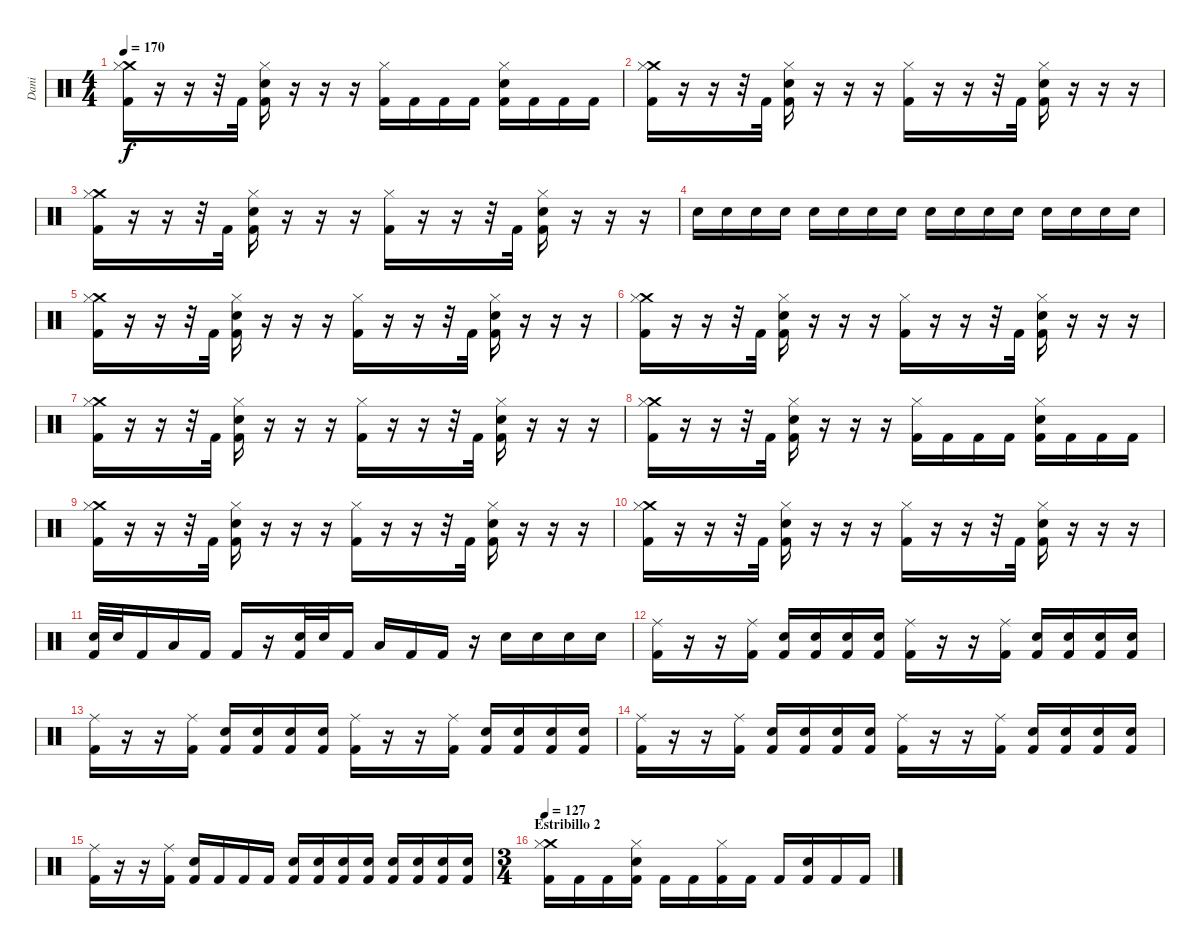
\track ("Dani" "Dani") {instrument percussion}
\staff {score}
\articulation defaults
\ts (4 4)
\tempo 170
\clef neutral
\ks c
("Crash medium (hit)" "Hi-Hat (closed)" "Kick (hit) 2").16{dy f} r.16 r.16 r.32 "Kick (hit) 2".32 ("Hi-Hat (closed)" "Electric Snare (hit)" "Kick (hit) 2").16 r.16 r.16 r.16 ("Hi-Hat (closed)" "Kick (hit) 2").16 "Kick (hit) 2".16 "Kick (hit) 2".16 "Kick (hit) 2".16 ("Hi-Hat (closed)" "Electric Snare (hit)" "Kick (hit) 2").16 "Kick (hit) 2".16 "Kick (hit) 2".16 "Kick (hit) 2".16 |
("Crash medium (hit)" "Hi-Hat (closed)" "Kick (hit) 2").16 r.16 r.16 r.32 "Kick (hit) 2".32 ("Hi-Hat (closed)" "Electric Snare (hit)" "Kick (hit) 2").16 r.16 r.16 r.16 ("Hi-Hat (closed)" "Kick (hit) 2").16 r.16 r.16 r.32 "Kick (hit) 2".32 ("Hi-Hat (closed)" "Electric Snare (hit)" "Kick (hit) 2").16 r.16 r.16 r.16 |
("Crash medium (hit)" "Hi-Hat (closed)" "Kick (hit) 2").16 r.16 r.16 r.32 "Kick (hit) 2".32 ("Hi-Hat (closed)" "Electric Snare (hit)" "Kick (hit) 2").16 r.16 r.16 r.16 ("Hi-Hat (closed)" "Kick (hit) 2").16 r.16 r.16 r.32 "Kick (hit) 2".32 ("Hi-Hat (closed)" "Electric Snare (hit)" "Kick (hit) 2").16 r.16 r.16 r.16 |
"Electric Snare (hit)".16 "Electric Snare (hit)".16 "Electric Snare (hit)".16 "Electric Snare (hit)".16 "Electric Snare (hit)".16 "Electric Snare (hit)".16 "Electric Snare (hit)".16 "Electric Snare (hit)".16 "Electric Snare (hit)".16 "Electric Snare (hit)".16 "Electric Snare (hit)".16 "Electric Snare (hit)".16 "Electric Snare (hit)".16 "Electric Snare (hit)".16 "Electric Snare (hit)".16 "Electric Snare (hit)".16 |
("Crash medium (hit)" "Hi-Hat (closed)" "Kick (hit) 2").16 r.16 r.16 r.32 "Kick (hit) 2".32 ("Hi-Hat (closed)" "Electric Snare (hit)" "Kick (hit) 2").16 r.16 r.16 r.16 ("Hi-Hat (closed)" "Kick (hit) 2").16 r.16 r.16 r.32 "Kick (hit) 2".32 ("Hi-Hat (closed)" "Electric Snare (hit)" "Kick (hit) 2").16 r.16 r.16 r.16 |
("Crash medium (hit)" "Hi-Hat (closed)" "Kick (hit) 2").16 r.16 r.16 r.32 "Kick (hit) 2".32 ("Hi-Hat (closed)" "Electric Snare (hit)" "Kick (hit) 2").16 r.16 r.16 r.16 ("Hi-Hat (closed)" "Kick (hit) 2").16 r.16 r.16 r.32 "Kick (hit) 2".32 ("Hi-Hat (closed)" "Electric Snare (hit)" "Kick (hit) 2").16 r.16 r.16 r.16 |
("Crash medium (hit)" "Hi-Hat (closed)" "Kick (hit) 2").16 r.16 r.16 r.32 "Kick (hit) 2".32 ("Hi-Hat (closed)" "Electric Snare (hit)" "Kick (hit) 2").16 r.16 r.16 r.16 ("Hi-Hat (closed)" "Kick (hit) 2").16 r.16 r.16 r.32 "Kick (hit) 2".32 ("Hi-Hat (closed)" "Electric Snare (hit)" "Kick (hit) 2").16 r.16 r.16 r.16 |
("Crash medium (hit)" "Hi-Hat (closed)" "Kick (hit) 2").16 r.16 r.16 r.32 "Kick (hit) 2".32 ("Hi-Hat (closed)" "Electric Snare (hit)" "Kick (hit) 2").16 r.16 r.16 r.16 ("Hi-Hat (closed)" "Kick (hit) 2").16 "Kick (hit) 2".16 "Kick (hit) 2".16 "Kick (hit) 2".16 ("Hi-Hat (closed)" "Electric Snare (hit)" "Kick (hit) 2").16 "Kick (hit) 2".16 "Kick (hit) 2".16 "Kick (hit) 2".16 |
("Crash medium (hit)" "Hi-Hat (closed)" "Kick (hit) 2").16 r.16 r.16 r.32 "Kick (hit) 2".32 ("Hi-Hat (closed)" "Electric Snare (hit)" "Kick (hit) 2").16 r.16 r.16 r.16 ("Hi-Hat (closed)" "Kick (hit) 2").16 r.16 r.16 r.32 "Kick (hit) 2".32 ("Hi-Hat (closed)" "Electric Snare (hit)" "Kick (hit) 2").16 r.16 r.16 r.16 |
("Crash medium (hit)" "Hi-Hat (closed)" "Kick (hit) 2").16 r.16 r.16 r.32 "Kick (hit) 2".32 ("Hi-Hat (closed)" "Electric Snare (hit)" "Kick (hit) 2").16 r.16 r.16 r.16 ("Hi-Hat (closed)" "Kick (hit) 2").16 r.16 r.16 r.32 "Kick (hit) 2".32 ("Hi-Hat (closed)" "Electric Snare (hit)" "Kick (hit) 2").16 r.16 r.16 r.16 |
("Electric Snare (hit)" "Kick (hit) 2").32 "Electric Snare (hit)".32 "Kick (hit) 2".16 "Low Tom (hit)".16 "Kick (hit) 2".16 "Kick (hit) 2".16 r.16 ("Electric Snare (hit)" "Kick (hit) 2").32 "Electric Snare (hit)".32 "Kick (hit) 2".16 "Low Tom (hit)".16 "Kick (hit) 2".16 "Kick (hit) 2".16 r.16 "Electric Snare (hit)".16 "Electric Snare (hit)".16 "Electric Snare (hit)".16 "Electric Snare (hit)".16 |
("Ride (middle)" "Kick (hit) 2").16 r.16 r.16 ("Ride (middle)" "Kick (hit) 2").16 ("Electric Snare (hit)" "Kick (hit) 2").16 ("Electric Snare (hit)" "Kick (hit) 2").16 ("Electric Snare (hit)" "Kick (hit) 2").16 ("Electric Snare (hit)" "Kick (hit) 2").16 ("Ride (middle)" "Kick (hit) 2").16 r.16 r.16 ("Ride (middle)" "Kick (hit) 2").16 ("Electric Snare (hit)" "Kick (hit) 2").16 ("Electric Snare (hit)" "Kick (hit) 2").16 ("Electric Snare (hit)" "Kick (hit) 2").16 ("Electric Snare (hit)" "Kick (hit) 2").16 |
("Ride (middle)" "Kick (hit) 2").16 r.16 r.16 ("Ride (middle)" "Kick (hit) 2").16 ("Electric Snare (hit)" "Kick (hit) 2").16 ("Electric Snare (hit)" "Kick (hit) 2").16 ("Electric Snare (hit)" "Kick (hit) 2").16 ("Electric Snare (hit)" "Kick (hit) 2").16 ("Ride (middle)" "Kick (hit) 2").16 r.16 r.16 ("Ride (middle)" "Kick (hit) 2").16 ("Electric Snare (hit)" "Kick (hit) 2").16 ("Electric Snare (hit)" "Kick (hit) 2").16 ("Electric Snare (hit)" "Kick (hit) 2").16 ("Electric Snare (hit)" "Kick (hit) 2").16 |
("Ride (middle)" "Kick (hit) 2").16 r.16 r.16 ("Ride (middle)" "Kick (hit) 2").16 ("Electric Snare (hit)" "Kick (hit) 2").16 ("Electric Snare (hit)" "Kick (hit) 2").16 ("Electric Snare (hit)" "Kick (hit) 2").16 ("Electric Snare (hit)" "Kick (hit) 2").16 ("Ride (middle)" "Kick (hit) 2").16 r.16 r.16 ("Ride (middle)" "Kick (hit) 2").16 ("Electric Snare (hit)" "Kick (hit) 2").16 ("Electric Snare (hit)" "Kick (hit) 2").16 ("Electric Snare (hit)" "Kick (hit) 2").16 ("Electric Snare (hit)" "Kick (hit) 2").16 |
("Ride (middle)" "Kick (hit) 2").16 r.16 r.16 ("Ride (middle)" "Kick (hit) 2").16 ("Electric Snare (hit)" "Kick (hit) 2").16 "Kick (hit) 2".16 "Kick (hit) 2".16 "Kick (hit) 2".16 ("Electric Snare (hit)" "Kick (hit) 2").16 ("Electric Snare (hit)" "Kick (hit) 2").16 ("Electric Snare (hit)" "Kick (hit) 2").16 ("Electric Snare (hit)" "Kick (hit) 2").16 ("Electric Snare (hit)" "Kick (hit) 2").16 ("Electric Snare (hit)" "Kick (hit) 2").16 ("Electric Snare (hit)" "Kick (hit) 2").16 ("Electric Snare (hit)" "Kick (hit) 2").16 |
\ts (3 4)
\section ("" "Estribillo 2")
\tempo 127
("Crash medium (hit)" "Hi-Hat (closed)" "Kick (hit) 2").16 "Kick (hit) 2".16 "Kick (hit) 2".16 ("Hi-Hat (closed)" "Electric Snare (hit)" "Kick (hit) 2").16 "Kick (hit) 2".16 "Kick (hit) 2".16 ("Hi-Hat (closed)" "Kick (hit) 2").16 "Kick (hit) 2".16 "Kick (hit) 2".16 ("Electric Snare (hit)" "Kick (hit) 2").16 "Kick (hit) 2".16 "Kick (hit) 2".16
